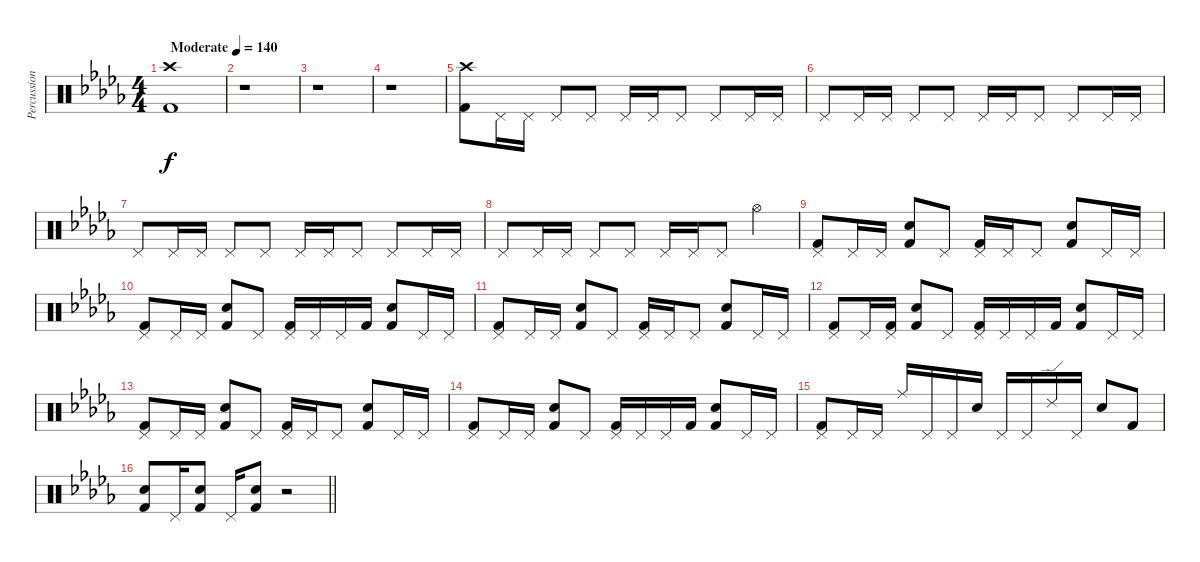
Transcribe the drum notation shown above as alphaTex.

\track ("Percussion" "Percussion") {instrument percussion}
\staff {score}
\articulation defaults
\ts (4 4)
\section ("" "")
\tempo (140 "Moderate")
\clef neutral
\ks db
("Crash high (hit)" "Kick (hit) 2").1{dy f} |
r.1 |
r.1 |
r.1 |
("Crash high (hit)" "Kick (hit) 2").8 "Pedal Hi-Hat (hit)".16 "Pedal Hi-Hat (hit)".16 "Pedal Hi-Hat (hit)".8 "Pedal Hi-Hat (hit)".8 "Pedal Hi-Hat (hit)".16 "Pedal Hi-Hat (hit)".16 "Pedal Hi-Hat (hit)".8 "Pedal Hi-Hat (hit)".8 "Pedal Hi-Hat (hit)".16 "Pedal Hi-Hat (hit)".16 |
"Pedal Hi-Hat (hit)".8 "Pedal Hi-Hat (hit)".16 "Pedal Hi-Hat (hit)".16 "Pedal Hi-Hat (hit)".8 "Pedal Hi-Hat (hit)".8 "Pedal Hi-Hat (hit)".16 "Pedal Hi-Hat (hit)".16 "Pedal Hi-Hat (hit)".8 "Pedal Hi-Hat (hit)".8 "Pedal Hi-Hat (hit)".16 "Pedal Hi-Hat (hit)".16 |
"Pedal Hi-Hat (hit)".8 "Pedal Hi-Hat (hit)".16 "Pedal Hi-Hat (hit)".16 "Pedal Hi-Hat (hit)".8 "Pedal Hi-Hat (hit)".8 "Pedal Hi-Hat (hit)".16 "Pedal Hi-Hat (hit)".16 "Pedal Hi-Hat (hit)".8 "Pedal Hi-Hat (hit)".8 "Pedal Hi-Hat (hit)".16 "Pedal Hi-Hat (hit)".16 |
"Pedal Hi-Hat (hit)".8 "Pedal Hi-Hat (hit)".16 "Pedal Hi-Hat (hit)".16 "Pedal Hi-Hat (hit)".8 "Pedal Hi-Hat (hit)".8 "Pedal Hi-Hat (hit)".16 "Pedal Hi-Hat (hit)".16 "Pedal Hi-Hat (hit)".8 "Hi-Hat (open)".4 |
("Pedal Hi-Hat (hit)" "Kick (hit) 2").8 "Pedal Hi-Hat (hit)".16 "Pedal Hi-Hat (hit)".16 ("Snare (hit) 2" "Kick (hit) 2").8 "Pedal Hi-Hat (hit)".8 ("Pedal Hi-Hat (hit)" "Kick (hit) 2").16 "Pedal Hi-Hat (hit)".16 "Pedal Hi-Hat (hit)".8 ("Snare (hit) 2" "Kick (hit) 2").8 "Pedal Hi-Hat (hit)".16 "Pedal Hi-Hat (hit)".16 |
("Pedal Hi-Hat (hit)" "Kick (hit) 2").8 "Pedal Hi-Hat (hit)".16 "Pedal Hi-Hat (hit)".16 ("Snare (hit) 2" "Kick (hit) 2").8 "Pedal Hi-Hat (hit)".8 ("Pedal Hi-Hat (hit)" "Kick (hit) 2").16 "Pedal Hi-Hat (hit)".16 "Pedal Hi-Hat (hit)".16 "Kick (hit) 2".16 ("Snare (hit) 2" "Kick (hit) 2").8 "Pedal Hi-Hat (hit)".16 "Pedal Hi-Hat (hit)".16 |
("Pedal Hi-Hat (hit)" "Kick (hit) 2").8 "Pedal Hi-Hat (hit)".16 "Pedal Hi-Hat (hit)".16 ("Snare (hit) 2" "Kick (hit) 2").8 "Pedal Hi-Hat (hit)".8 ("Pedal Hi-Hat (hit)" "Kick (hit) 2").16 "Pedal Hi-Hat (hit)".16 "Pedal Hi-Hat (hit)".8 ("Snare (hit) 2" "Kick (hit) 2").8 "Pedal Hi-Hat (hit)".16 "Pedal Hi-Hat (hit)".16 |
("Pedal Hi-Hat (hit)" "Kick (hit) 2").8 "Pedal Hi-Hat (hit)".16 ("Pedal Hi-Hat (hit)" "Kick (hit) 2").16 ("Snare (hit) 2" "Kick (hit) 2").8 "Pedal Hi-Hat (hit)".8 ("Pedal Hi-Hat (hit)" "Kick (hit) 2").16 "Pedal Hi-Hat (hit)".16 "Pedal Hi-Hat (hit)".16 "Kick (hit) 2".16 ("Snare (hit) 2" "Kick (hit) 2").8 "Pedal Hi-Hat (hit)".16 "Pedal Hi-Hat (hit)".16 |
("Pedal Hi-Hat (hit)" "Kick (hit) 2").8 "Pedal Hi-Hat (hit)".16 "Pedal Hi-Hat (hit)".16 ("Snare (hit) 2" "Kick (hit) 2").8 "Pedal Hi-Hat (hit)".8 ("Pedal Hi-Hat (hit)" "Kick (hit) 2").16 "Pedal Hi-Hat (hit)".16 "Pedal Hi-Hat (hit)".8 ("Snare (hit) 2" "Kick (hit) 2").8 "Pedal Hi-Hat (hit)".16 "Pedal Hi-Hat (hit)".16 |
("Pedal Hi-Hat (hit)" "Kick (hit) 2").8 "Pedal Hi-Hat (hit)".16 "Pedal Hi-Hat (hit)".16 ("Snare (hit) 2" "Kick (hit) 2").8 "Pedal Hi-Hat (hit)".8 ("Pedal Hi-Hat (hit)" "Kick (hit) 2").16 "Pedal Hi-Hat (hit)".16 "Pedal Hi-Hat (hit)".16 "Kick (hit) 2".16 ("Snare (hit) 2" "Kick (hit) 2").8 "Pedal Hi-Hat (hit)".16 "Pedal Hi-Hat (hit)".16 |
("Pedal Hi-Hat (hit)" "Kick (hit) 2").8 "Pedal Hi-Hat (hit)".16 "Pedal Hi-Hat (hit)".16 "Ride (middle)".16 "Pedal Hi-Hat (hit)".16 "Pedal Hi-Hat (hit)".16 "Snare (hit) 2".16 "Pedal Hi-Hat (hit)".16 "Pedal Hi-Hat (hit)".16 "Ride (edge) 2".16 "Pedal Hi-Hat (hit)".16 "Snare (hit) 2".8 "Kick (hit) 2".8 |
\barLineRight lightlight
("Snare (hit) 2" "Kick (hit) 2").8 "Pedal Hi-Hat (hit)".16 ("Snare (hit) 2" "Kick (hit) 2").8 "Pedal Hi-Hat (hit)".16 ("Snare (hit) 2" "Kick (hit) 2").8 r.2
